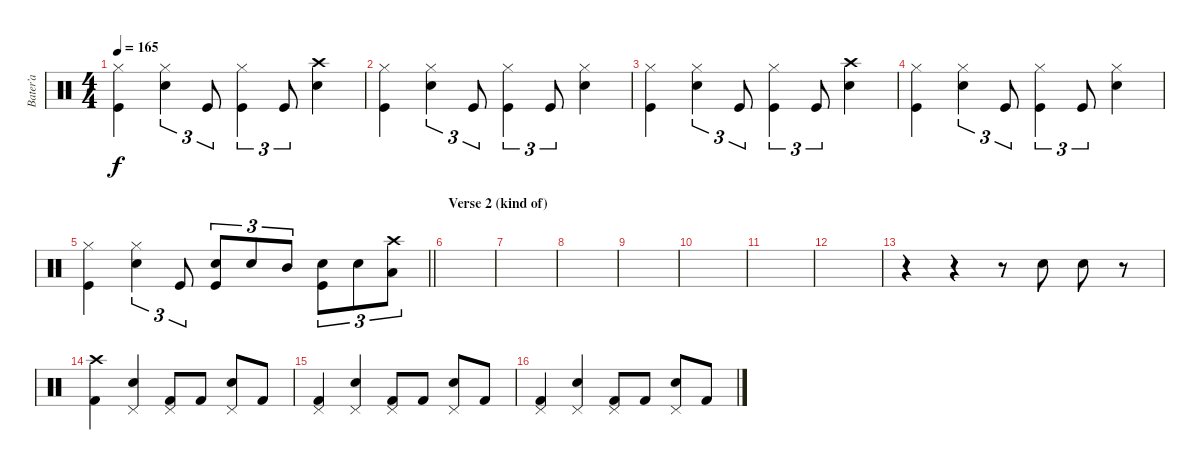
\track ("Bater’a" "Bater’a") {instrument percussion}
\staff {score}
\articulation defaults
\ts (4 4)
\tempo 165
\clef neutral
\ks c
("Hi-Hat (closed)" "Kick (hit)").4{dy f} ("Hi-Hat (closed)" "Snare (hit) 2").4{tu (3 2)} "Kick (hit)".8{tu (3 2)} ("Hi-Hat (closed)" "Kick (hit)").4{tu (3 2)} "Kick (hit)".8{tu (3 2)} ("Crash high (hit)" "Snare (hit) 2").4 |
("Hi-Hat (closed)" "Kick (hit)").4 ("Hi-Hat (closed)" "Snare (hit) 2").4{tu (3 2)} "Kick (hit)".8{tu (3 2)} ("Hi-Hat (closed)" "Kick (hit)").4{tu (3 2)} "Kick (hit)".8{tu (3 2)} ("Hi-Hat (closed)" "Snare (hit) 2").4 |
("Hi-Hat (closed)" "Kick (hit)").4 ("Hi-Hat (closed)" "Snare (hit) 2").4{tu (3 2)} "Kick (hit)".8{tu (3 2)} ("Hi-Hat (closed)" "Kick (hit)").4{tu (3 2)} "Kick (hit)".8{tu (3 2)} ("Crash high (hit)" "Snare (hit) 2").4 |
("Hi-Hat (closed)" "Kick (hit)").4 ("Hi-Hat (closed)" "Snare (hit) 2").4{tu (3 2)} "Kick (hit)".8{tu (3 2)} ("Hi-Hat (closed)" "Kick (hit)").4{tu (3 2)} "Kick (hit)".8{tu (3 2)} ("Hi-Hat (closed)" "Snare (hit) 2").4 |
\barLineRight lightlight
("Hi-Hat (closed)" "Kick (hit)").4 ("Hi-Hat (closed)" "Snare (hit) 2").4{tu (3 2)} "Kick (hit)".8{tu (3 2)} ("Snare (hit) 2" "Kick (hit)").8{tu (3 2)} "Snare (hit) 2".8{tu (3 2)} "Mid Tom (hit)".8{tu (3 2)} ("Snare (hit) 2" "Kick (hit)").8{tu (3 2)} "Snare (hit) 2".8{tu (3 2)} ("Crash high (hit)" "Low Tom (hit)").8{tu (3 2)} |
\section ("" "Verse 2 (kind of)")
|
|
|
|
|
|
|
r.4 r.4 r.8 "Electric Snare (hit)".8 "Electric Snare (hit)".8 r.8 |
("Crash high (hit)" "Kick (hit) 2").4 ("Pedal Hi-Hat (hit)" "Electric Snare (hit)").4 ("Pedal Hi-Hat (hit)" "Kick (hit) 2").8 "Kick (hit) 2".8 ("Pedal Hi-Hat (hit)" "Electric Snare (hit)").8 "Kick (hit) 2".8 |
("Pedal Hi-Hat (hit)" "Kick (hit) 2").4 ("Pedal Hi-Hat (hit)" "Electric Snare (hit)").4 ("Pedal Hi-Hat (hit)" "Kick (hit) 2").8 "Kick (hit) 2".8 ("Pedal Hi-Hat (hit)" "Electric Snare (hit)").8 "Kick (hit) 2".8 |
("Pedal Hi-Hat (hit)" "Kick (hit) 2").4 ("Pedal Hi-Hat (hit)" "Electric Snare (hit)").4 ("Pedal Hi-Hat (hit)" "Kick (hit) 2").8 "Kick (hit) 2".8 ("Pedal Hi-Hat (hit)" "Electric Snare (hit)").8 "Kick (hit) 2".8
